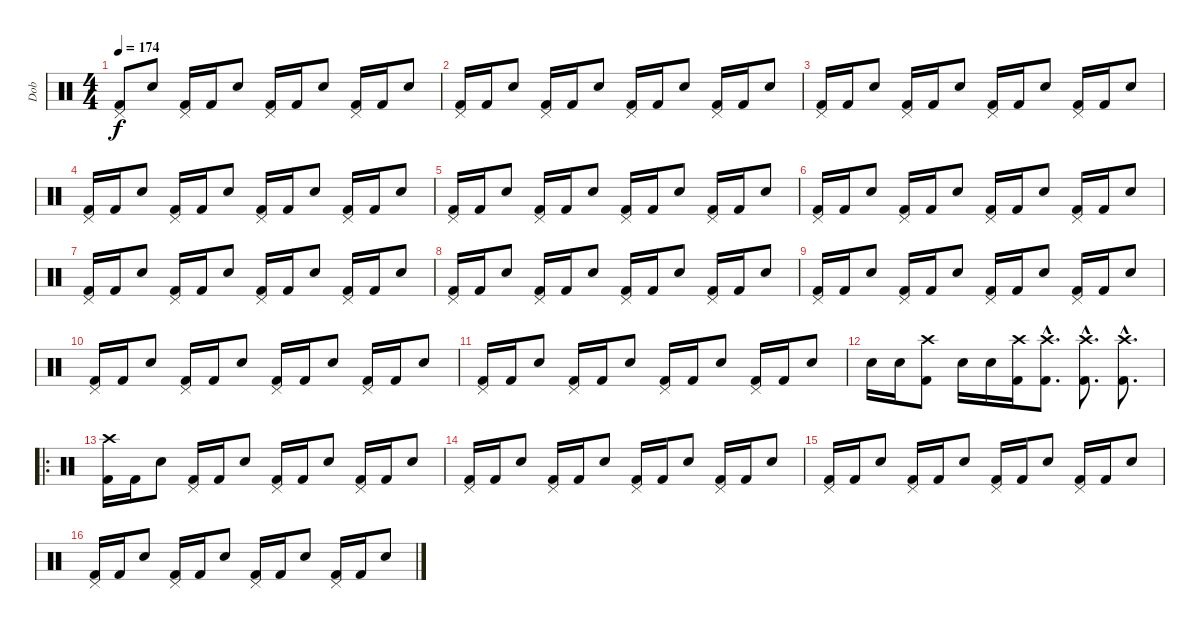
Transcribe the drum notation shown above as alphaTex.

\track ("Dob" "Dob") {instrument percussion}
\staff {score}
\articulation defaults
\ts (4 4)
\tempo 174
\clef neutral
\ks c
("Pedal Hi-Hat (hit)" "Kick (hit) 2").8{dy f} "Snare (hit) 2".8 ("Pedal Hi-Hat (hit)" "Kick (hit) 2").16 "Kick (hit) 2".16 "Snare (hit) 2".8 ("Pedal Hi-Hat (hit)" "Kick (hit) 2").16 "Kick (hit) 2".16 "Snare (hit) 2".8 ("Pedal Hi-Hat (hit)" "Kick (hit) 2").16 "Kick (hit) 2".16 "Snare (hit) 2".8 |
("Pedal Hi-Hat (hit)" "Kick (hit) 2").16 "Kick (hit) 2".16 "Snare (hit) 2".8 ("Pedal Hi-Hat (hit)" "Kick (hit) 2").16 "Kick (hit) 2".16 "Snare (hit) 2".8 ("Pedal Hi-Hat (hit)" "Kick (hit) 2").16 "Kick (hit) 2".16 "Snare (hit) 2".8 ("Pedal Hi-Hat (hit)" "Kick (hit) 2").16 "Kick (hit) 2".16 "Snare (hit) 2".8 |
("Pedal Hi-Hat (hit)" "Kick (hit) 2").16 "Kick (hit) 2".16 "Snare (hit) 2".8 ("Pedal Hi-Hat (hit)" "Kick (hit) 2").16 "Kick (hit) 2".16 "Snare (hit) 2".8 ("Pedal Hi-Hat (hit)" "Kick (hit) 2").16 "Kick (hit) 2".16 "Snare (hit) 2".8 ("Pedal Hi-Hat (hit)" "Kick (hit) 2").16 "Kick (hit) 2".16 "Snare (hit) 2".8 |
("Pedal Hi-Hat (hit)" "Kick (hit) 2").16 "Kick (hit) 2".16 "Snare (hit) 2".8 ("Pedal Hi-Hat (hit)" "Kick (hit) 2").16 "Kick (hit) 2".16 "Snare (hit) 2".8 ("Pedal Hi-Hat (hit)" "Kick (hit) 2").16 "Kick (hit) 2".16 "Snare (hit) 2".8 ("Pedal Hi-Hat (hit)" "Kick (hit) 2").16 "Kick (hit) 2".16 "Snare (hit) 2".8 |
("Pedal Hi-Hat (hit)" "Kick (hit) 2").16 "Kick (hit) 2".16 "Snare (hit) 2".8 ("Pedal Hi-Hat (hit)" "Kick (hit) 2").16 "Kick (hit) 2".16 "Snare (hit) 2".8 ("Pedal Hi-Hat (hit)" "Kick (hit) 2").16 "Kick (hit) 2".16 "Snare (hit) 2".8 ("Pedal Hi-Hat (hit)" "Kick (hit) 2").16 "Kick (hit) 2".16 "Snare (hit) 2".8 |
("Pedal Hi-Hat (hit)" "Kick (hit) 2").16 "Kick (hit) 2".16 "Snare (hit) 2".8 ("Pedal Hi-Hat (hit)" "Kick (hit) 2").16 "Kick (hit) 2".16 "Snare (hit) 2".8 ("Pedal Hi-Hat (hit)" "Kick (hit) 2").16 "Kick (hit) 2".16 "Snare (hit) 2".8 ("Pedal Hi-Hat (hit)" "Kick (hit) 2").16 "Kick (hit) 2".16 "Snare (hit) 2".8 |
("Pedal Hi-Hat (hit)" "Kick (hit) 2").16 "Kick (hit) 2".16 "Snare (hit) 2".8 ("Pedal Hi-Hat (hit)" "Kick (hit) 2").16 "Kick (hit) 2".16 "Snare (hit) 2".8 ("Pedal Hi-Hat (hit)" "Kick (hit) 2").16 "Kick (hit) 2".16 "Snare (hit) 2".8 ("Pedal Hi-Hat (hit)" "Kick (hit) 2").16 "Kick (hit) 2".16 "Snare (hit) 2".8 |
("Pedal Hi-Hat (hit)" "Kick (hit) 2").16 "Kick (hit) 2".16 "Snare (hit) 2".8 ("Pedal Hi-Hat (hit)" "Kick (hit) 2").16 "Kick (hit) 2".16 "Snare (hit) 2".8 ("Pedal Hi-Hat (hit)" "Kick (hit) 2").16 "Kick (hit) 2".16 "Snare (hit) 2".8 ("Pedal Hi-Hat (hit)" "Kick (hit) 2").16 "Kick (hit) 2".16 "Snare (hit) 2".8 |
("Pedal Hi-Hat (hit)" "Kick (hit) 2").16 "Kick (hit) 2".16 "Snare (hit) 2".8 ("Pedal Hi-Hat (hit)" "Kick (hit) 2").16 "Kick (hit) 2".16 "Snare (hit) 2".8 ("Pedal Hi-Hat (hit)" "Kick (hit) 2").16 "Kick (hit) 2".16 "Snare (hit) 2".8 ("Pedal Hi-Hat (hit)" "Kick (hit) 2").16 "Kick (hit) 2".16 "Snare (hit) 2".8 |
("Pedal Hi-Hat (hit)" "Kick (hit) 2").16 "Kick (hit) 2".16 "Snare (hit) 2".8 ("Pedal Hi-Hat (hit)" "Kick (hit) 2").16 "Kick (hit) 2".16 "Snare (hit) 2".8 ("Pedal Hi-Hat (hit)" "Kick (hit) 2").16 "Kick (hit) 2".16 "Snare (hit) 2".8 ("Pedal Hi-Hat (hit)" "Kick (hit) 2").16 "Kick (hit) 2".16 "Snare (hit) 2".8 |
("Pedal Hi-Hat (hit)" "Kick (hit) 2").16 "Kick (hit) 2".16 "Snare (hit) 2".8 ("Pedal Hi-Hat (hit)" "Kick (hit) 2").16 "Kick (hit) 2".16 "Snare (hit) 2".8 ("Pedal Hi-Hat (hit)" "Kick (hit) 2").16 "Kick (hit) 2".16 "Snare (hit) 2".8 ("Pedal Hi-Hat (hit)" "Kick (hit) 2").16 "Kick (hit) 2".16 "Snare (hit) 2".8 |
"Electric Snare (hit)".16 "Electric Snare (hit)".16 ("Crash high (hit)" "Kick (hit) 2").8 "Electric Snare (hit)".16 "Electric Snare (hit)".16 ("Crash high (hit)" "Kick (hit) 2").16 ("Crash high (hit)"{hac} "Kick (hit) 2"{hac}).8{d} ("Crash high (hit)"{hac} "Kick (hit) 2"{hac}).8{d} ("Crash high (hit)"{hac} "Kick (hit) 2"{hac}).8{d} |
\ro
("Crash high (hit)" "Kick (hit) 2").16 "Kick (hit) 2".16 "Snare (hit) 2".8 ("Pedal Hi-Hat (hit)" "Kick (hit) 2").16 "Kick (hit) 2".16 "Snare (hit) 2".8 ("Pedal Hi-Hat (hit)" "Kick (hit) 2").16 "Kick (hit) 2".16 "Snare (hit) 2".8 ("Pedal Hi-Hat (hit)" "Kick (hit) 2").16 "Kick (hit) 2".16 "Snare (hit) 2".8 |
("Pedal Hi-Hat (hit)" "Kick (hit) 2").16 "Kick (hit) 2".16 "Snare (hit) 2".8 ("Pedal Hi-Hat (hit)" "Kick (hit) 2").16 "Kick (hit) 2".16 "Snare (hit) 2".8 ("Pedal Hi-Hat (hit)" "Kick (hit) 2").16 "Kick (hit) 2".16 "Snare (hit) 2".8 ("Pedal Hi-Hat (hit)" "Kick (hit) 2").16 "Kick (hit) 2".16 "Snare (hit) 2".8 |
("Pedal Hi-Hat (hit)" "Kick (hit) 2").16 "Kick (hit) 2".16 "Snare (hit) 2".8 ("Pedal Hi-Hat (hit)" "Kick (hit) 2").16 "Kick (hit) 2".16 "Snare (hit) 2".8 ("Pedal Hi-Hat (hit)" "Kick (hit) 2").16 "Kick (hit) 2".16 "Snare (hit) 2".8 ("Pedal Hi-Hat (hit)" "Kick (hit) 2").16 "Kick (hit) 2".16 "Snare (hit) 2".8 |
("Pedal Hi-Hat (hit)" "Kick (hit) 2").16 "Kick (hit) 2".16 "Snare (hit) 2".8 ("Pedal Hi-Hat (hit)" "Kick (hit) 2").16 "Kick (hit) 2".16 "Snare (hit) 2".8 ("Pedal Hi-Hat (hit)" "Kick (hit) 2").16 "Kick (hit) 2".16 "Snare (hit) 2".8 ("Pedal Hi-Hat (hit)" "Kick (hit) 2").16 "Kick (hit) 2".16 "Snare (hit) 2".8
